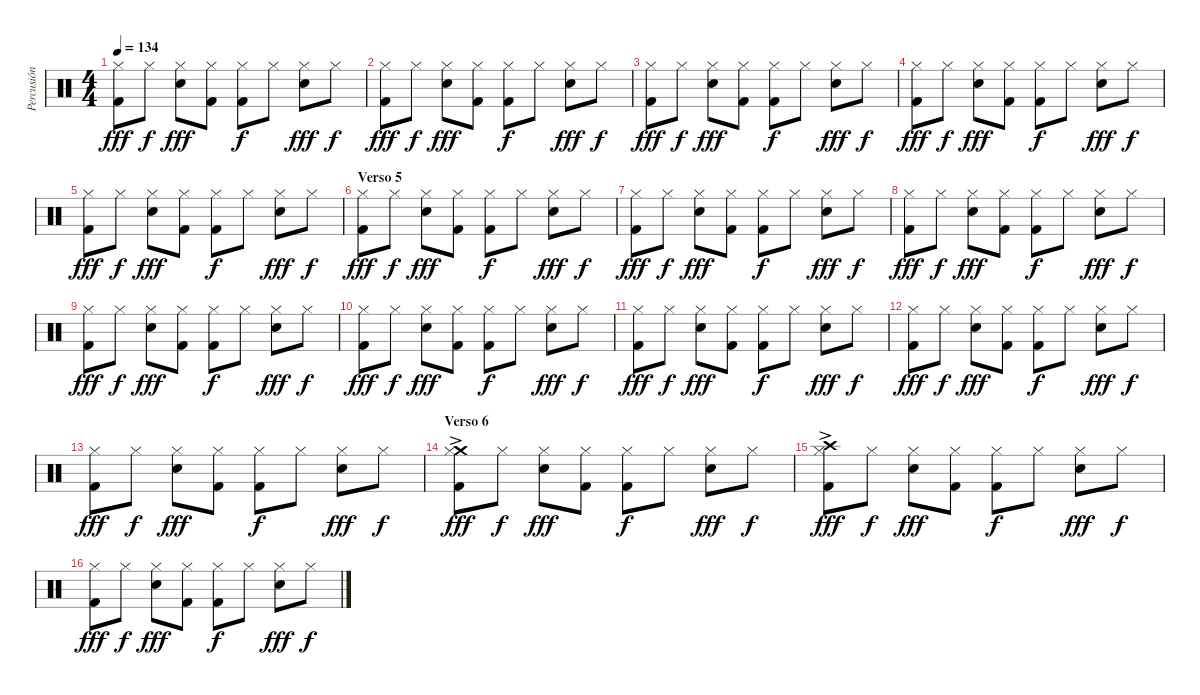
\track ("Percusión" "Percusión") {instrument percussion}
\staff {score}
\articulation defaults
\ts (4 4)
\tempo 134
\clef neutral
\ks c
("Hi-Hat (closed)" "Kick (hit) 2").8{dy fff} "Hi-Hat (closed)".8{dy f} ("Hi-Hat (closed)" "Electric Snare (hit)").8{dy fff} ("Hi-Hat (closed)" "Kick (hit) 2").8 ("Hi-Hat (closed)" "Kick (hit) 2").8{dy f} "Hi-Hat (closed)".8 ("Hi-Hat (closed)" "Electric Snare (hit)").8{dy fff} "Hi-Hat (closed)".8{dy f} |
("Hi-Hat (closed)" "Kick (hit) 2").8{dy fff} "Hi-Hat (closed)".8{dy f} ("Hi-Hat (closed)" "Electric Snare (hit)").8{dy fff} ("Hi-Hat (closed)" "Kick (hit) 2").8 ("Hi-Hat (closed)" "Kick (hit) 2").8{dy f} "Hi-Hat (closed)".8 ("Hi-Hat (closed)" "Electric Snare (hit)").8{dy fff} "Hi-Hat (closed)".8{dy f} |
("Hi-Hat (closed)" "Kick (hit) 2").8{dy fff} "Hi-Hat (closed)".8{dy f} ("Hi-Hat (closed)" "Electric Snare (hit)").8{dy fff} ("Hi-Hat (closed)" "Kick (hit) 2").8 ("Hi-Hat (closed)" "Kick (hit) 2").8{dy f} "Hi-Hat (closed)".8 ("Hi-Hat (closed)" "Electric Snare (hit)").8{dy fff} "Hi-Hat (closed)".8{dy f} |
("Hi-Hat (closed)" "Kick (hit) 2").8{dy fff} "Hi-Hat (closed)".8{dy f} ("Hi-Hat (closed)" "Electric Snare (hit)").8{dy fff} ("Hi-Hat (closed)" "Kick (hit) 2").8 ("Hi-Hat (closed)" "Kick (hit) 2").8{dy f} "Hi-Hat (closed)".8 ("Hi-Hat (closed)" "Electric Snare (hit)").8{dy fff} "Hi-Hat (closed)".8{dy f} |
("Hi-Hat (closed)" "Kick (hit) 2").8{dy fff} "Hi-Hat (closed)".8{dy f} ("Hi-Hat (closed)" "Electric Snare (hit)").8{dy fff} ("Hi-Hat (closed)" "Kick (hit) 2").8 ("Hi-Hat (closed)" "Kick (hit) 2").8{dy f} "Hi-Hat (closed)".8 ("Hi-Hat (closed)" "Electric Snare (hit)").8{dy fff} "Hi-Hat (closed)".8{dy f} |
\section ("" "Verso 5")
("Hi-Hat (closed)" "Kick (hit) 2").8{dy fff} "Hi-Hat (closed)".8{dy f} ("Hi-Hat (closed)" "Electric Snare (hit)").8{dy fff} ("Hi-Hat (closed)" "Kick (hit) 2").8 ("Hi-Hat (closed)" "Kick (hit) 2").8{dy f} "Hi-Hat (closed)".8 ("Hi-Hat (closed)" "Electric Snare (hit)").8{dy fff} "Hi-Hat (closed)".8{dy f} |
("Hi-Hat (closed)" "Kick (hit) 2").8{dy fff} "Hi-Hat (closed)".8{dy f} ("Hi-Hat (closed)" "Electric Snare (hit)").8{dy fff} ("Hi-Hat (closed)" "Kick (hit) 2").8 ("Hi-Hat (closed)" "Kick (hit) 2").8{dy f} "Hi-Hat (closed)".8 ("Hi-Hat (closed)" "Electric Snare (hit)").8{dy fff} "Hi-Hat (closed)".8{dy f} |
("Hi-Hat (closed)" "Kick (hit) 2").8{dy fff} "Hi-Hat (closed)".8{dy f} ("Hi-Hat (closed)" "Electric Snare (hit)").8{dy fff} ("Hi-Hat (closed)" "Kick (hit) 2").8 ("Hi-Hat (closed)" "Kick (hit) 2").8{dy f} "Hi-Hat (closed)".8 ("Hi-Hat (closed)" "Electric Snare (hit)").8{dy fff} "Hi-Hat (closed)".8{dy f} |
("Hi-Hat (closed)" "Kick (hit) 2").8{dy fff} "Hi-Hat (closed)".8{dy f} ("Hi-Hat (closed)" "Electric Snare (hit)").8{dy fff} ("Hi-Hat (closed)" "Kick (hit) 2").8 ("Hi-Hat (closed)" "Kick (hit) 2").8{dy f} "Hi-Hat (closed)".8 ("Hi-Hat (closed)" "Electric Snare (hit)").8{dy fff} "Hi-Hat (closed)".8{dy f} |
("Hi-Hat (closed)" "Kick (hit) 2").8{dy fff} "Hi-Hat (closed)".8{dy f} ("Hi-Hat (closed)" "Electric Snare (hit)").8{dy fff} ("Hi-Hat (closed)" "Kick (hit) 2").8 ("Hi-Hat (closed)" "Kick (hit) 2").8{dy f} "Hi-Hat (closed)".8 ("Hi-Hat (closed)" "Electric Snare (hit)").8{dy fff} "Hi-Hat (closed)".8{dy f} |
("Hi-Hat (closed)" "Kick (hit) 2").8{dy fff} "Hi-Hat (closed)".8{dy f} ("Hi-Hat (closed)" "Electric Snare (hit)").8{dy fff} ("Hi-Hat (closed)" "Kick (hit) 2").8 ("Hi-Hat (closed)" "Kick (hit) 2").8{dy f} "Hi-Hat (closed)".8 ("Hi-Hat (closed)" "Electric Snare (hit)").8{dy fff} "Hi-Hat (closed)".8{dy f} |
("Hi-Hat (closed)" "Kick (hit) 2").8{dy fff} "Hi-Hat (closed)".8{dy f} ("Hi-Hat (closed)" "Electric Snare (hit)").8{dy fff} ("Hi-Hat (closed)" "Kick (hit) 2").8 ("Hi-Hat (closed)" "Kick (hit) 2").8{dy f} "Hi-Hat (closed)".8 ("Hi-Hat (closed)" "Electric Snare (hit)").8{dy fff} "Hi-Hat (closed)".8{dy f} |
("Hi-Hat (closed)" "Kick (hit) 2").8{dy fff} "Hi-Hat (closed)".8{dy f} ("Hi-Hat (closed)" "Electric Snare (hit)").8{dy fff} ("Hi-Hat (closed)" "Kick (hit) 2").8 ("Hi-Hat (closed)" "Kick (hit) 2").8{dy f} "Hi-Hat (closed)".8 ("Hi-Hat (closed)" "Electric Snare (hit)").8{dy fff} "Hi-Hat (closed)".8{dy f} |
\section ("" "Verso 6")
("Crash medium (hit)"{ac} "Hi-Hat (closed)" "Kick (hit) 2").8{dy fff} "Hi-Hat (closed)".8{dy f} ("Hi-Hat (closed)" "Electric Snare (hit)").8{dy fff} ("Hi-Hat (closed)" "Kick (hit) 2").8 ("Hi-Hat (closed)" "Kick (hit) 2").8{dy f} "Hi-Hat (closed)".8 ("Hi-Hat (closed)" "Electric Snare (hit)").8{dy fff} "Hi-Hat (closed)".8{dy f} |
("Crash high (hit)"{ac} "Hi-Hat (closed)" "Kick (hit) 2").8{dy fff} "Hi-Hat (closed)".8{dy f} ("Hi-Hat (closed)" "Electric Snare (hit)").8{dy fff} ("Hi-Hat (closed)" "Kick (hit) 2").8 ("Hi-Hat (closed)" "Kick (hit) 2").8{dy f} "Hi-Hat (closed)".8 ("Hi-Hat (closed)" "Electric Snare (hit)").8{dy fff} "Hi-Hat (closed)".8{dy f} |
("Hi-Hat (closed)" "Kick (hit) 2").8{dy fff} "Hi-Hat (closed)".8{dy f} ("Hi-Hat (closed)" "Electric Snare (hit)").8{dy fff} ("Hi-Hat (closed)" "Kick (hit) 2").8 ("Hi-Hat (closed)" "Kick (hit) 2").8{dy f} "Hi-Hat (closed)".8 ("Hi-Hat (closed)" "Electric Snare (hit)").8{dy fff} "Hi-Hat (closed)".8{dy f}
